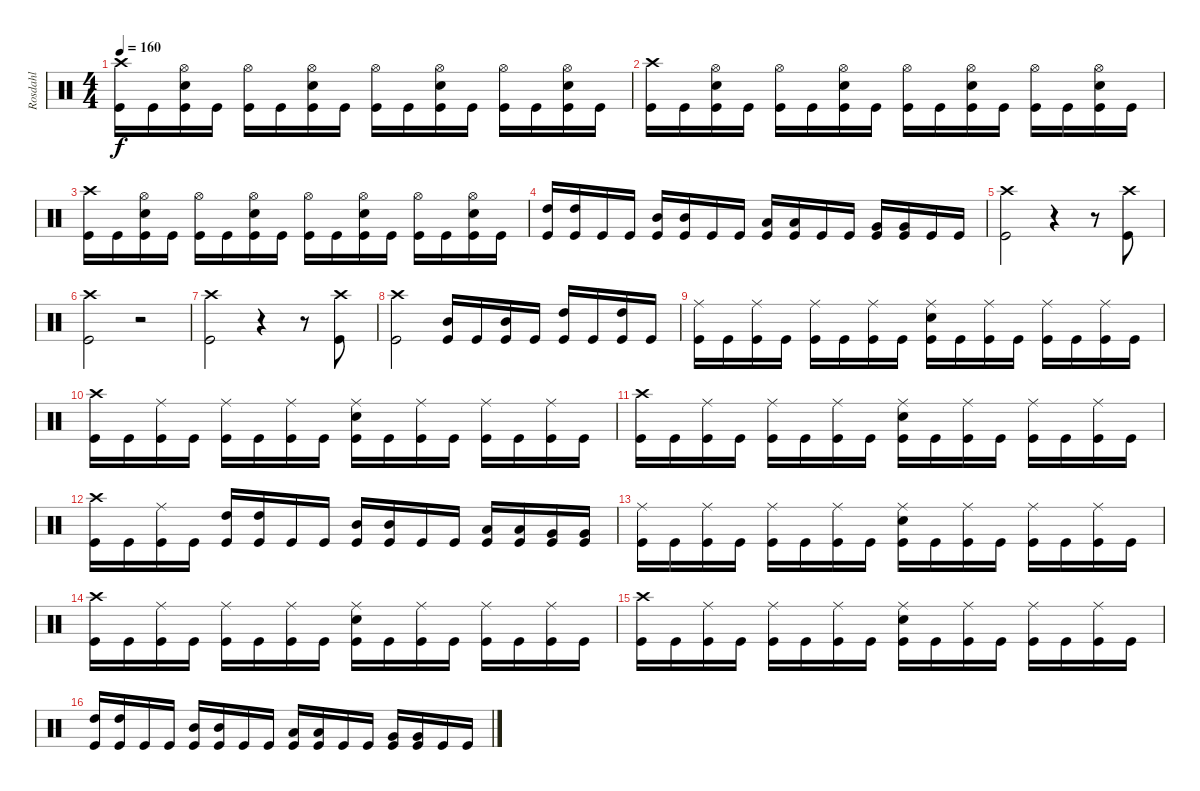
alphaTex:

\track ("Rosdahl" "Rosdahl") {instrument percussion}
\staff {score}
\articulation defaults
\ts (4 4)
\tempo 160
\clef neutral
\ks c
("Crash high (hit)" "Kick (hit)").16{dy f} "Kick (hit)".16 ("Hi-Hat (open)" "Electric Snare (hit)" "Kick (hit)").16 "Kick (hit)".16 ("Hi-Hat (open)" "Kick (hit)").16 "Kick (hit)".16 ("Hi-Hat (open)" "Electric Snare (hit)" "Kick (hit)").16 "Kick (hit)".16 ("Hi-Hat (open)" "Kick (hit)").16 "Kick (hit)".16 ("Hi-Hat (open)" "Electric Snare (hit)" "Kick (hit)").16 "Kick (hit)".16 ("Hi-Hat (open)" "Kick (hit)").16 "Kick (hit)".16 ("Hi-Hat (open)" "Electric Snare (hit)" "Kick (hit)").16 "Kick (hit)".16 |
("Crash high (hit)" "Kick (hit)").16 "Kick (hit)".16 ("Hi-Hat (open)" "Electric Snare (hit)" "Kick (hit)").16 "Kick (hit)".16 ("Hi-Hat (open)" "Kick (hit)").16 "Kick (hit)".16 ("Hi-Hat (open)" "Electric Snare (hit)" "Kick (hit)").16 "Kick (hit)".16 ("Hi-Hat (open)" "Kick (hit)").16 "Kick (hit)".16 ("Hi-Hat (open)" "Electric Snare (hit)" "Kick (hit)").16 "Kick (hit)".16 ("Hi-Hat (open)" "Kick (hit)").16 "Kick (hit)".16 ("Hi-Hat (open)" "Electric Snare (hit)" "Kick (hit)").16 "Kick (hit)".16 |
("Crash high (hit)" "Kick (hit)").16 "Kick (hit)".16 ("Hi-Hat (open)" "Electric Snare (hit)" "Kick (hit)").16 "Kick (hit)".16 ("Hi-Hat (open)" "Kick (hit)").16 "Kick (hit)".16 ("Hi-Hat (open)" "Electric Snare (hit)" "Kick (hit)").16 "Kick (hit)".16 ("Hi-Hat (open)" "Kick (hit)").16 "Kick (hit)".16 ("Hi-Hat (open)" "Electric Snare (hit)" "Kick (hit)").16 "Kick (hit)".16 ("Hi-Hat (open)" "Kick (hit)").16 "Kick (hit)".16 ("Hi-Hat (open)" "Electric Snare (hit)" "Kick (hit)").16 "Kick (hit)".16 |
("High Tom (hit)" "Kick (hit)").16 ("High Tom (hit)" "Kick (hit)").16 "Kick (hit)".16 "Kick (hit)".16 ("Mid Tom (hit)" "Kick (hit)").16 ("Mid Tom (hit)" "Kick (hit)").16 "Kick (hit)".16 "Kick (hit)".16 ("Low Tom (hit)" "Kick (hit)").16 ("Low Tom (hit)" "Kick (hit)").16 "Kick (hit)".16 "Kick (hit)".16 ("Very Low Tom (hit)" "Kick (hit)").16 ("Very Low Tom (hit)" "Kick (hit)").16 "Kick (hit)".16 "Kick (hit)".16 |
("Crash high (hit)" "Kick (hit)").2{volume 12} r.4 r.8 ("Crash high (hit)" "Kick (hit)").8 |
("Crash high (hit)" "Kick (hit)").2 r.2 |
("Crash high (hit)" "Kick (hit)").2{volume 12} r.4 r.8 ("Crash high (hit)" "Kick (hit)").8 |
("Crash high (hit)" "Kick (hit)").2 ("Mid Tom (hit)" "Kick (hit)").16 "Kick (hit)".16 ("Mid Tom (hit)" "Kick (hit)").16 "Kick (hit)".16 ("High Tom (hit)" "Kick (hit)").16 "Kick (hit)".16 ("High Tom (hit)" "Kick (hit)").16 "Kick (hit)".16 |
("Ride (middle)" "Kick (hit)").16{volume 12} "Kick (hit)".16 ("Ride (middle)" "Kick (hit)").16 "Kick (hit)".16 ("Ride (middle)" "Kick (hit)").16 "Kick (hit)".16 ("Ride (middle)" "Kick (hit)").16 "Kick (hit)".16 ("Ride (middle)" "Electric Snare (hit)" "Kick (hit)").16 "Kick (hit)".16 ("Ride (middle)" "Kick (hit)").16 "Kick (hit)".16 ("Ride (middle)" "Kick (hit)").16 "Kick (hit)".16 ("Ride (middle)" "Kick (hit)").16 "Kick (hit)".16 |
("Crash high (hit)" "Kick (hit)").16{volume 12} "Kick (hit)".16 ("Ride (middle)" "Kick (hit)").16 "Kick (hit)".16 ("Ride (middle)" "Kick (hit)").16 "Kick (hit)".16 ("Ride (middle)" "Kick (hit)").16 "Kick (hit)".16 ("Ride (middle)" "Electric Snare (hit)" "Kick (hit)").16 "Kick (hit)".16 ("Ride (middle)" "Kick (hit)").16 "Kick (hit)".16 ("Ride (middle)" "Kick (hit)").16 "Kick (hit)".16 ("Ride (middle)" "Kick (hit)").16 "Kick (hit)".16 |
("Crash high (hit)" "Kick (hit)").16{volume 12} "Kick (hit)".16 ("Ride (middle)" "Kick (hit)").16 "Kick (hit)".16 ("Ride (middle)" "Kick (hit)").16 "Kick (hit)".16 ("Ride (middle)" "Kick (hit)").16 "Kick (hit)".16 ("Ride (middle)" "Electric Snare (hit)" "Kick (hit)").16 "Kick (hit)".16 ("Ride (middle)" "Kick (hit)").16 "Kick (hit)".16 ("Ride (middle)" "Kick (hit)").16 "Kick (hit)".16 ("Ride (middle)" "Kick (hit)").16 "Kick (hit)".16 |
("Crash high (hit)" "Kick (hit)").16{volume 12} "Kick (hit)".16 ("Ride (middle)" "Kick (hit)").16 "Kick (hit)".16 ("High Tom (hit)" "Kick (hit)").16 ("High Tom (hit)" "Kick (hit)").16 "Kick (hit)".16 "Kick (hit)".16 ("Mid Tom (hit)" "Kick (hit)").16 ("Mid Tom (hit)" "Kick (hit)").16 "Kick (hit)".16 "Kick (hit)".16 ("Low Tom (hit)" "Kick (hit)").16 ("Low Tom (hit)" "Kick (hit)").16 ("Very Low Tom (hit)" "Kick (hit)").16 ("Very Low Tom (hit)" "Kick (hit)").16 |
("Ride (middle)" "Kick (hit)").16{volume 12} "Kick (hit)".16 ("Ride (middle)" "Kick (hit)").16 "Kick (hit)".16 ("Ride (middle)" "Kick (hit)").16 "Kick (hit)".16 ("Ride (middle)" "Kick (hit)").16 "Kick (hit)".16 ("Ride (middle)" "Electric Snare (hit)" "Kick (hit)").16 "Kick (hit)".16 ("Ride (middle)" "Kick (hit)").16 "Kick (hit)".16 ("Ride (middle)" "Kick (hit)").16 "Kick (hit)".16 ("Ride (middle)" "Kick (hit)").16 "Kick (hit)".16 |
("Crash high (hit)" "Kick (hit)").16{volume 12} "Kick (hit)".16 ("Ride (middle)" "Kick (hit)").16 "Kick (hit)".16 ("Ride (middle)" "Kick (hit)").16 "Kick (hit)".16 ("Ride (middle)" "Kick (hit)").16 "Kick (hit)".16 ("Ride (middle)" "Electric Snare (hit)" "Kick (hit)").16 "Kick (hit)".16 ("Ride (middle)" "Kick (hit)").16 "Kick (hit)".16 ("Ride (middle)" "Kick (hit)").16 "Kick (hit)".16 ("Ride (middle)" "Kick (hit)").16 "Kick (hit)".16 |
("Crash high (hit)" "Kick (hit)").16{volume 12} "Kick (hit)".16 ("Ride (middle)" "Kick (hit)").16 "Kick (hit)".16 ("Ride (middle)" "Kick (hit)").16 "Kick (hit)".16 ("Ride (middle)" "Kick (hit)").16 "Kick (hit)".16 ("Ride (middle)" "Electric Snare (hit)" "Kick (hit)").16 "Kick (hit)".16 ("Ride (middle)" "Kick (hit)").16 "Kick (hit)".16 ("Ride (middle)" "Kick (hit)").16 "Kick (hit)".16 ("Ride (middle)" "Kick (hit)").16 "Kick (hit)".16 |
("High Tom (hit)" "Kick (hit)").16 ("High Tom (hit)" "Kick (hit)").16 "Kick (hit)".16 "Kick (hit)".16 ("Mid Tom (hit)" "Kick (hit)").16 ("Mid Tom (hit)" "Kick (hit)").16 "Kick (hit)".16 "Kick (hit)".16 ("Low Tom (hit)" "Kick (hit)").16 ("Low Tom (hit)" "Kick (hit)").16 "Kick (hit)".16 "Kick (hit)".16 ("Very Low Tom (hit)" "Kick (hit)").16 ("Very Low Tom (hit)" "Kick (hit)").16 "Kick (hit)".16 "Kick (hit)".16
